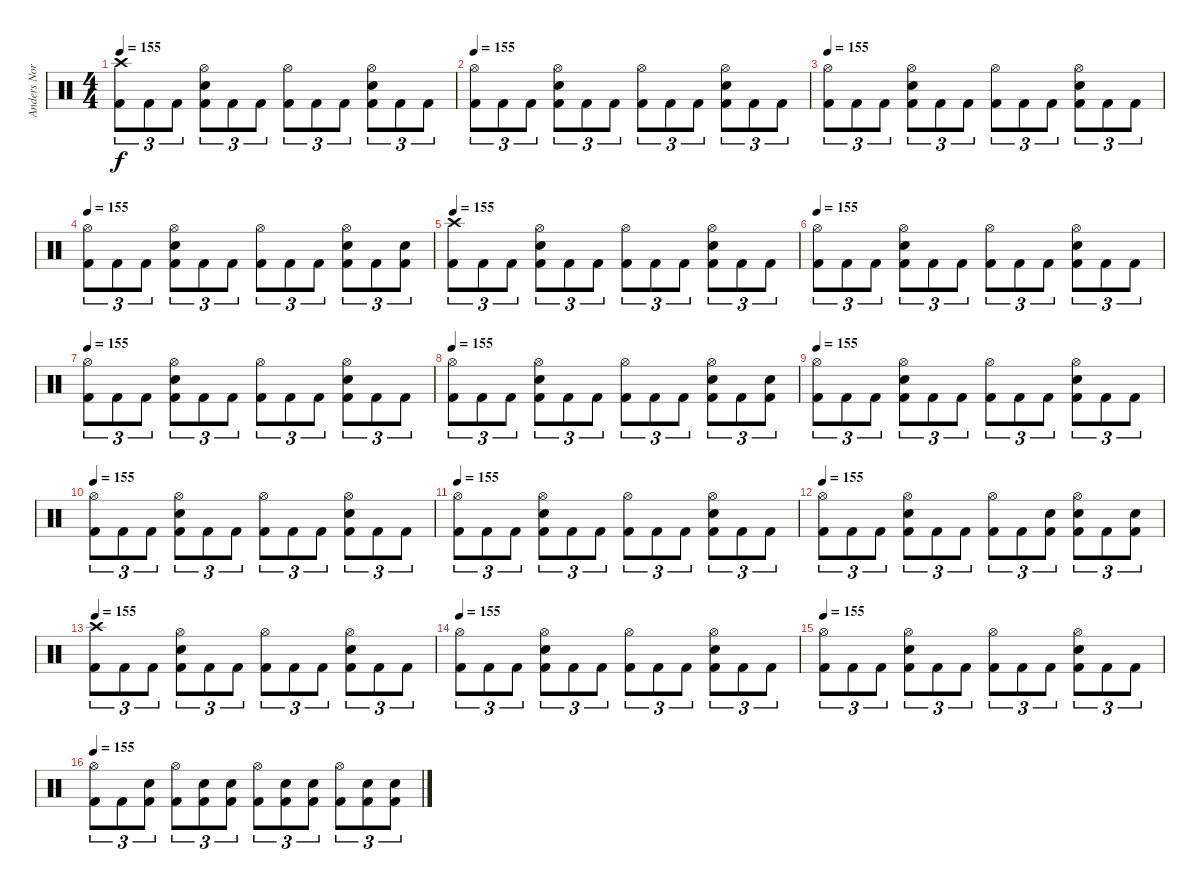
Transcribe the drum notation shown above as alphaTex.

\track ("Anders Nordin" "Anders Nor") {instrument percussion}
\staff {score}
\articulation defaults
\ts (4 4)
\tempo 155
\clef neutral
\ks c
("Kick (hit) 2" "Crash high (hit)").8{tu (3 2) dy f} "Kick (hit) 2".8{tu (3 2)} "Kick (hit) 2".8{tu (3 2)} ("Kick (hit) 2" "Electric Snare (hit)" "Hi-Hat (open)").8{tu (3 2)} "Kick (hit) 2".8{tu (3 2)} "Kick (hit) 2".8{tu (3 2)} ("Kick (hit) 2" "Hi-Hat (open)").8{tu (3 2)} "Kick (hit) 2".8{tu (3 2)} "Kick (hit) 2".8{tu (3 2)} ("Kick (hit) 2" "Electric Snare (hit)" "Hi-Hat (open)").8{tu (3 2)} "Kick (hit) 2".8{tu (3 2)} "Kick (hit) 2".8{tu (3 2)} |
\tempo 155
("Kick (hit) 2" "Hi-Hat (open)").8{tu (3 2)} "Kick (hit) 2".8{tu (3 2)} "Kick (hit) 2".8{tu (3 2)} ("Kick (hit) 2" "Electric Snare (hit)" "Hi-Hat (open)").8{tu (3 2)} "Kick (hit) 2".8{tu (3 2)} "Kick (hit) 2".8{tu (3 2)} ("Kick (hit) 2" "Hi-Hat (open)").8{tu (3 2)} "Kick (hit) 2".8{tu (3 2)} "Kick (hit) 2".8{tu (3 2)} ("Kick (hit) 2" "Electric Snare (hit)" "Hi-Hat (open)").8{tu (3 2)} "Kick (hit) 2".8{tu (3 2)} "Kick (hit) 2".8{tu (3 2)} |
\tempo 155
("Kick (hit) 2" "Hi-Hat (open)").8{tu (3 2)} "Kick (hit) 2".8{tu (3 2)} "Kick (hit) 2".8{tu (3 2)} ("Kick (hit) 2" "Electric Snare (hit)" "Hi-Hat (open)").8{tu (3 2)} "Kick (hit) 2".8{tu (3 2)} "Kick (hit) 2".8{tu (3 2)} ("Kick (hit) 2" "Hi-Hat (open)").8{tu (3 2)} "Kick (hit) 2".8{tu (3 2)} "Kick (hit) 2".8{tu (3 2)} ("Kick (hit) 2" "Electric Snare (hit)" "Hi-Hat (open)").8{tu (3 2)} "Kick (hit) 2".8{tu (3 2)} "Kick (hit) 2".8{tu (3 2)} |
\tempo 155
("Kick (hit) 2" "Hi-Hat (open)").8{tu (3 2)} "Kick (hit) 2".8{tu (3 2)} "Kick (hit) 2".8{tu (3 2)} ("Kick (hit) 2" "Electric Snare (hit)" "Hi-Hat (open)").8{tu (3 2)} "Kick (hit) 2".8{tu (3 2)} "Kick (hit) 2".8{tu (3 2)} ("Kick (hit) 2" "Hi-Hat (open)").8{tu (3 2)} "Kick (hit) 2".8{tu (3 2)} "Kick (hit) 2".8{tu (3 2)} ("Kick (hit) 2" "Electric Snare (hit)" "Hi-Hat (open)").8{tu (3 2)} "Kick (hit) 2".8{tu (3 2)} ("Kick (hit) 2" "Electric Snare (hit)").8{tu (3 2)} |
\tempo 155
("Kick (hit) 2" "Crash high (hit)").8{tu (3 2)} "Kick (hit) 2".8{tu (3 2)} "Kick (hit) 2".8{tu (3 2)} ("Kick (hit) 2" "Electric Snare (hit)" "Hi-Hat (open)").8{tu (3 2)} "Kick (hit) 2".8{tu (3 2)} "Kick (hit) 2".8{tu (3 2)} ("Kick (hit) 2" "Hi-Hat (open)").8{tu (3 2)} "Kick (hit) 2".8{tu (3 2)} "Kick (hit) 2".8{tu (3 2)} ("Kick (hit) 2" "Electric Snare (hit)" "Hi-Hat (open)").8{tu (3 2)} "Kick (hit) 2".8{tu (3 2)} "Kick (hit) 2".8{tu (3 2)} |
\tempo 155
("Kick (hit) 2" "Hi-Hat (open)").8{tu (3 2)} "Kick (hit) 2".8{tu (3 2)} "Kick (hit) 2".8{tu (3 2)} ("Kick (hit) 2" "Electric Snare (hit)" "Hi-Hat (open)").8{tu (3 2)} "Kick (hit) 2".8{tu (3 2)} "Kick (hit) 2".8{tu (3 2)} ("Kick (hit) 2" "Hi-Hat (open)").8{tu (3 2)} "Kick (hit) 2".8{tu (3 2)} "Kick (hit) 2".8{tu (3 2)} ("Kick (hit) 2" "Electric Snare (hit)" "Hi-Hat (open)").8{tu (3 2)} "Kick (hit) 2".8{tu (3 2)} "Kick (hit) 2".8{tu (3 2)} |
\tempo 155
("Kick (hit) 2" "Hi-Hat (open)").8{tu (3 2)} "Kick (hit) 2".8{tu (3 2)} "Kick (hit) 2".8{tu (3 2)} ("Kick (hit) 2" "Electric Snare (hit)" "Hi-Hat (open)").8{tu (3 2)} "Kick (hit) 2".8{tu (3 2)} "Kick (hit) 2".8{tu (3 2)} ("Kick (hit) 2" "Hi-Hat (open)").8{tu (3 2)} "Kick (hit) 2".8{tu (3 2)} "Kick (hit) 2".8{tu (3 2)} ("Kick (hit) 2" "Electric Snare (hit)" "Hi-Hat (open)").8{tu (3 2)} "Kick (hit) 2".8{tu (3 2)} "Kick (hit) 2".8{tu (3 2)} |
\tempo 155
("Kick (hit) 2" "Hi-Hat (open)").8{tu (3 2)} "Kick (hit) 2".8{tu (3 2)} "Kick (hit) 2".8{tu (3 2)} ("Kick (hit) 2" "Electric Snare (hit)" "Hi-Hat (open)").8{tu (3 2)} "Kick (hit) 2".8{tu (3 2)} "Kick (hit) 2".8{tu (3 2)} ("Kick (hit) 2" "Hi-Hat (open)").8{tu (3 2)} "Kick (hit) 2".8{tu (3 2)} "Kick (hit) 2".8{tu (3 2)} ("Kick (hit) 2" "Electric Snare (hit)" "Hi-Hat (open)").8{tu (3 2)} "Kick (hit) 2".8{tu (3 2)} ("Kick (hit) 2" "Electric Snare (hit)").8{tu (3 2)} |
\tempo 155
("Kick (hit) 2" "Hi-Hat (open)").8{tu (3 2)} "Kick (hit) 2".8{tu (3 2)} "Kick (hit) 2".8{tu (3 2)} ("Kick (hit) 2" "Electric Snare (hit)" "Hi-Hat (open)").8{tu (3 2)} "Kick (hit) 2".8{tu (3 2)} "Kick (hit) 2".8{tu (3 2)} ("Kick (hit) 2" "Hi-Hat (open)").8{tu (3 2)} "Kick (hit) 2".8{tu (3 2)} "Kick (hit) 2".8{tu (3 2)} ("Kick (hit) 2" "Electric Snare (hit)" "Hi-Hat (open)").8{tu (3 2)} "Kick (hit) 2".8{tu (3 2)} "Kick (hit) 2".8{tu (3 2)} |
\tempo 155
("Kick (hit) 2" "Hi-Hat (open)").8{tu (3 2)} "Kick (hit) 2".8{tu (3 2)} "Kick (hit) 2".8{tu (3 2)} ("Kick (hit) 2" "Electric Snare (hit)" "Hi-Hat (open)").8{tu (3 2)} "Kick (hit) 2".8{tu (3 2)} "Kick (hit) 2".8{tu (3 2)} ("Kick (hit) 2" "Hi-Hat (open)").8{tu (3 2)} "Kick (hit) 2".8{tu (3 2)} "Kick (hit) 2".8{tu (3 2)} ("Kick (hit) 2" "Electric Snare (hit)" "Hi-Hat (open)").8{tu (3 2)} "Kick (hit) 2".8{tu (3 2)} "Kick (hit) 2".8{tu (3 2)} |
\tempo 155
("Kick (hit) 2" "Hi-Hat (open)").8{tu (3 2)} "Kick (hit) 2".8{tu (3 2)} "Kick (hit) 2".8{tu (3 2)} ("Kick (hit) 2" "Electric Snare (hit)" "Hi-Hat (open)").8{tu (3 2)} "Kick (hit) 2".8{tu (3 2)} "Kick (hit) 2".8{tu (3 2)} ("Kick (hit) 2" "Hi-Hat (open)").8{tu (3 2)} "Kick (hit) 2".8{tu (3 2)} "Kick (hit) 2".8{tu (3 2)} ("Kick (hit) 2" "Electric Snare (hit)" "Hi-Hat (open)").8{tu (3 2)} "Kick (hit) 2".8{tu (3 2)} "Kick (hit) 2".8{tu (3 2)} |
\tempo 155
("Kick (hit) 2" "Hi-Hat (open)").8{tu (3 2)} "Kick (hit) 2".8{tu (3 2)} "Kick (hit) 2".8{tu (3 2)} ("Kick (hit) 2" "Electric Snare (hit)" "Hi-Hat (open)").8{tu (3 2)} "Kick (hit) 2".8{tu (3 2)} "Kick (hit) 2".8{tu (3 2)} ("Kick (hit) 2" "Hi-Hat (open)").8{tu (3 2)} "Kick (hit) 2".8{tu (3 2)} ("Kick (hit) 2" "Electric Snare (hit)").8{tu (3 2)} ("Kick (hit) 2" "Electric Snare (hit)" "Hi-Hat (open)").8{tu (3 2)} "Kick (hit) 2".8{tu (3 2)} ("Kick (hit) 2" "Electric Snare (hit)").8{tu (3 2)} |
\tempo 155
("Kick (hit) 2" "Crash high (hit)").8{tu (3 2)} "Kick (hit) 2".8{tu (3 2)} "Kick (hit) 2".8{tu (3 2)} ("Kick (hit) 2" "Electric Snare (hit)" "Hi-Hat (open)").8{tu (3 2)} "Kick (hit) 2".8{tu (3 2)} "Kick (hit) 2".8{tu (3 2)} ("Kick (hit) 2" "Hi-Hat (open)").8{tu (3 2)} "Kick (hit) 2".8{tu (3 2)} "Kick (hit) 2".8{tu (3 2)} ("Kick (hit) 2" "Electric Snare (hit)" "Hi-Hat (open)").8{tu (3 2)} "Kick (hit) 2".8{tu (3 2)} "Kick (hit) 2".8{tu (3 2)} |
\tempo 155
("Kick (hit) 2" "Hi-Hat (open)").8{tu (3 2)} "Kick (hit) 2".8{tu (3 2)} "Kick (hit) 2".8{tu (3 2)} ("Kick (hit) 2" "Electric Snare (hit)" "Hi-Hat (open)").8{tu (3 2)} "Kick (hit) 2".8{tu (3 2)} "Kick (hit) 2".8{tu (3 2)} ("Kick (hit) 2" "Hi-Hat (open)").8{tu (3 2)} "Kick (hit) 2".8{tu (3 2)} "Kick (hit) 2".8{tu (3 2)} ("Kick (hit) 2" "Electric Snare (hit)" "Hi-Hat (open)").8{tu (3 2)} "Kick (hit) 2".8{tu (3 2)} "Kick (hit) 2".8{tu (3 2)} |
\tempo 155
("Kick (hit) 2" "Hi-Hat (open)").8{tu (3 2)} "Kick (hit) 2".8{tu (3 2)} "Kick (hit) 2".8{tu (3 2)} ("Kick (hit) 2" "Electric Snare (hit)" "Hi-Hat (open)").8{tu (3 2)} "Kick (hit) 2".8{tu (3 2)} "Kick (hit) 2".8{tu (3 2)} ("Kick (hit) 2" "Hi-Hat (open)").8{tu (3 2)} "Kick (hit) 2".8{tu (3 2)} "Kick (hit) 2".8{tu (3 2)} ("Kick (hit) 2" "Electric Snare (hit)" "Hi-Hat (open)").8{tu (3 2)} "Kick (hit) 2".8{tu (3 2)} "Kick (hit) 2".8{tu (3 2)} |
\tempo 155
("Kick (hit) 2" "Hi-Hat (open)").8{tu (3 2)} "Kick (hit) 2".8{tu (3 2)} ("Kick (hit) 2" "Electric Snare (hit)").8{tu (3 2)} ("Kick (hit) 2" "Hi-Hat (open)").8{tu (3 2)} ("Kick (hit) 2" "Electric Snare (hit)").8{tu (3 2)} ("Kick (hit) 2" "Electric Snare (hit)").8{tu (3 2)} ("Kick (hit) 2" "Hi-Hat (open)").8{tu (3 2)} ("Kick (hit) 2" "Electric Snare (hit)").8{tu (3 2)} ("Kick (hit) 2" "Electric Snare (hit)").8{tu (3 2)} ("Kick (hit) 2" "Hi-Hat (open)").8{tu (3 2)} ("Kick (hit) 2" "Electric Snare (hit)").8{tu (3 2)} ("Kick (hit) 2" "Electric Snare (hit)").8{tu (3 2)}
